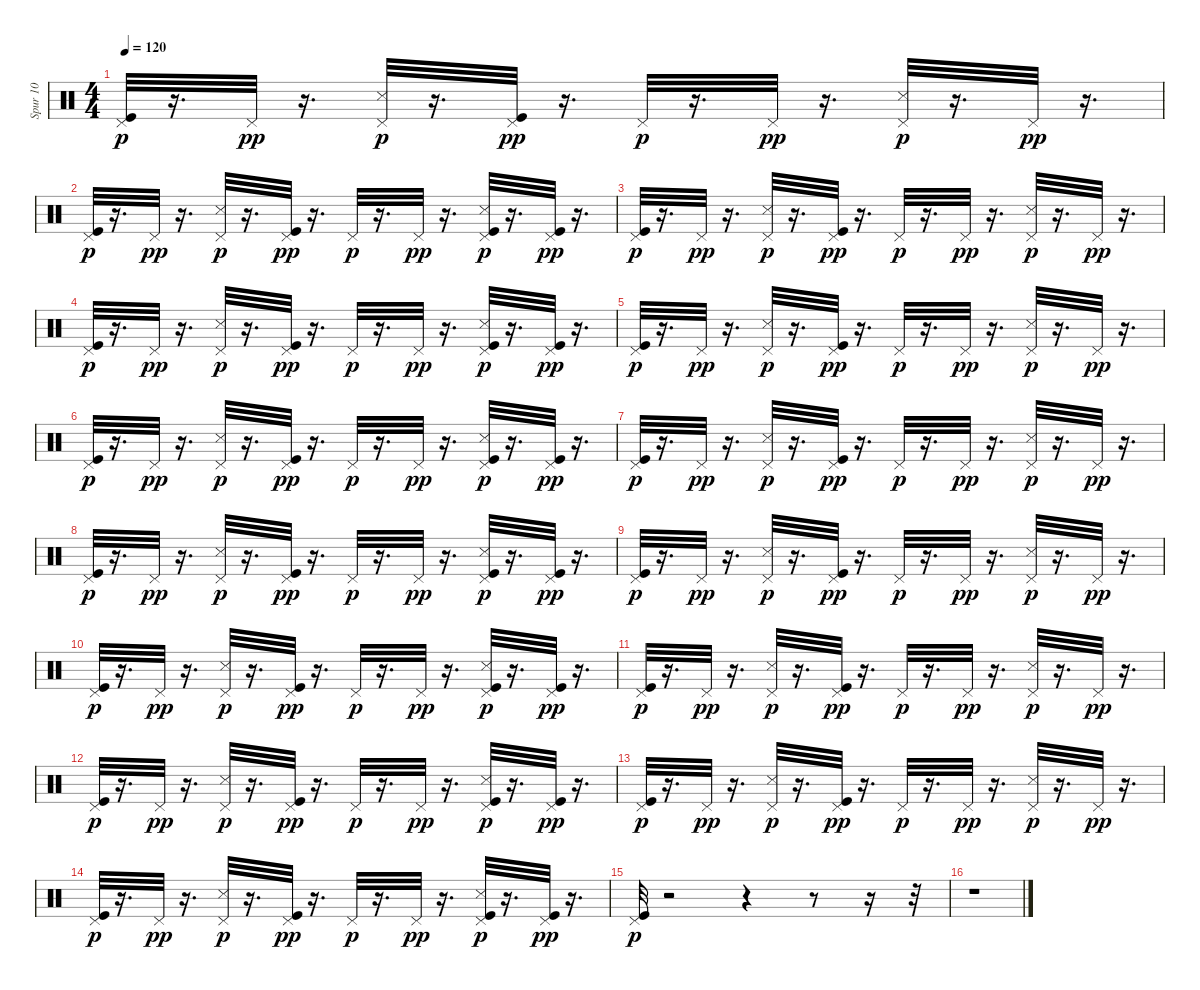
\track ("Spur 10" "Spur 10") {instrument percussion}
\staff {score}
\articulation defaults
\ts (4 4)
\tempo 120
\clef neutral
\ks c
("Kick (hit)" "Pedal Hi-Hat (hit)").32{dy p} r.16{d} "Pedal Hi-Hat (hit)".32{dy pp} r.16{d} ("Snare (side stick) 3" "Pedal Hi-Hat (hit)").32{dy p} r.16{d} ("Kick (hit)" "Pedal Hi-Hat (hit)").32{dy pp} r.16{d} "Pedal Hi-Hat (hit)".32{dy p} r.16{d} "Pedal Hi-Hat (hit)".32{dy pp} r.16{d} ("Snare (side stick) 3" "Pedal Hi-Hat (hit)").32{dy p} r.16{d} "Pedal Hi-Hat (hit)".32{dy pp} r.16{d} |
("Kick (hit)" "Pedal Hi-Hat (hit)").32{dy p} r.16{d} "Pedal Hi-Hat (hit)".32{dy pp} r.16{d} ("Snare (side stick) 3" "Pedal Hi-Hat (hit)").32{dy p} r.16{d} ("Kick (hit)" "Pedal Hi-Hat (hit)").32{dy pp} r.16{d} "Pedal Hi-Hat (hit)".32{dy p} r.16{d} "Pedal Hi-Hat (hit)".32{dy pp} r.16{d} ("Kick (hit)" "Snare (side stick) 3" "Pedal Hi-Hat (hit)").32{dy p} r.16{d} ("Kick (hit)" "Pedal Hi-Hat (hit)").32{dy pp} r.16{d} |
("Kick (hit)" "Pedal Hi-Hat (hit)").32{dy p} r.16{d} "Pedal Hi-Hat (hit)".32{dy pp} r.16{d} ("Snare (side stick) 3" "Pedal Hi-Hat (hit)").32{dy p} r.16{d} ("Kick (hit)" "Pedal Hi-Hat (hit)").32{dy pp} r.16{d} "Pedal Hi-Hat (hit)".32{dy p} r.16{d} "Pedal Hi-Hat (hit)".32{dy pp} r.16{d} ("Snare (side stick) 3" "Pedal Hi-Hat (hit)").32{dy p} r.16{d} "Pedal Hi-Hat (hit)".32{dy pp} r.16{d} |
("Kick (hit)" "Pedal Hi-Hat (hit)").32{dy p} r.16{d} "Pedal Hi-Hat (hit)".32{dy pp} r.16{d} ("Snare (side stick) 3" "Pedal Hi-Hat (hit)").32{dy p} r.16{d} ("Kick (hit)" "Pedal Hi-Hat (hit)").32{dy pp} r.16{d} "Pedal Hi-Hat (hit)".32{dy p} r.16{d} "Pedal Hi-Hat (hit)".32{dy pp} r.16{d} ("Kick (hit)" "Snare (side stick) 3" "Pedal Hi-Hat (hit)").32{dy p} r.16{d} ("Kick (hit)" "Pedal Hi-Hat (hit)").32{dy pp} r.16{d} |
("Kick (hit)" "Pedal Hi-Hat (hit)").32{dy p} r.16{d} "Pedal Hi-Hat (hit)".32{dy pp} r.16{d} ("Snare (side stick) 3" "Pedal Hi-Hat (hit)").32{dy p} r.16{d} ("Kick (hit)" "Pedal Hi-Hat (hit)").32{dy pp} r.16{d} "Pedal Hi-Hat (hit)".32{dy p} r.16{d} "Pedal Hi-Hat (hit)".32{dy pp} r.16{d} ("Snare (side stick) 3" "Pedal Hi-Hat (hit)").32{dy p} r.16{d} "Pedal Hi-Hat (hit)".32{dy pp} r.16{d} |
("Kick (hit)" "Pedal Hi-Hat (hit)").32{dy p} r.16{d} "Pedal Hi-Hat (hit)".32{dy pp} r.16{d} ("Snare (side stick) 3" "Pedal Hi-Hat (hit)").32{dy p} r.16{d} ("Kick (hit)" "Pedal Hi-Hat (hit)").32{dy pp} r.16{d} "Pedal Hi-Hat (hit)".32{dy p} r.16{d} "Pedal Hi-Hat (hit)".32{dy pp} r.16{d} ("Kick (hit)" "Snare (side stick) 3" "Pedal Hi-Hat (hit)").32{dy p} r.16{d} ("Kick (hit)" "Pedal Hi-Hat (hit)").32{dy pp} r.16{d} |
("Kick (hit)" "Pedal Hi-Hat (hit)").32{dy p} r.16{d} "Pedal Hi-Hat (hit)".32{dy pp} r.16{d} ("Snare (side stick) 3" "Pedal Hi-Hat (hit)").32{dy p} r.16{d} ("Kick (hit)" "Pedal Hi-Hat (hit)").32{dy pp} r.16{d} "Pedal Hi-Hat (hit)".32{dy p} r.16{d} "Pedal Hi-Hat (hit)".32{dy pp} r.16{d} ("Snare (side stick) 3" "Pedal Hi-Hat (hit)").32{dy p} r.16{d} "Pedal Hi-Hat (hit)".32{dy pp} r.16{d} |
("Kick (hit)" "Pedal Hi-Hat (hit)").32{dy p} r.16{d} "Pedal Hi-Hat (hit)".32{dy pp} r.16{d} ("Snare (side stick) 3" "Pedal Hi-Hat (hit)").32{dy p} r.16{d} ("Kick (hit)" "Pedal Hi-Hat (hit)").32{dy pp} r.16{d} "Pedal Hi-Hat (hit)".32{dy p} r.16{d} "Pedal Hi-Hat (hit)".32{dy pp} r.16{d} ("Kick (hit)" "Snare (side stick) 3" "Pedal Hi-Hat (hit)").32{dy p} r.16{d} ("Kick (hit)" "Pedal Hi-Hat (hit)").32{dy pp} r.16{d} |
("Kick (hit)" "Pedal Hi-Hat (hit)").32{dy p} r.16{d} "Pedal Hi-Hat (hit)".32{dy pp} r.16{d} ("Snare (side stick) 3" "Pedal Hi-Hat (hit)").32{dy p} r.16{d} ("Kick (hit)" "Pedal Hi-Hat (hit)").32{dy pp} r.16{d} "Pedal Hi-Hat (hit)".32{dy p} r.16{d} "Pedal Hi-Hat (hit)".32{dy pp} r.16{d} ("Snare (side stick) 3" "Pedal Hi-Hat (hit)").32{dy p} r.16{d} "Pedal Hi-Hat (hit)".32{dy pp} r.16{d} |
("Kick (hit)" "Pedal Hi-Hat (hit)").32{dy p} r.16{d} "Pedal Hi-Hat (hit)".32{dy pp} r.16{d} ("Snare (side stick) 3" "Pedal Hi-Hat (hit)").32{dy p} r.16{d} ("Kick (hit)" "Pedal Hi-Hat (hit)").32{dy pp} r.16{d} "Pedal Hi-Hat (hit)".32{dy p} r.16{d} "Pedal Hi-Hat (hit)".32{dy pp} r.16{d} ("Kick (hit)" "Snare (side stick) 3" "Pedal Hi-Hat (hit)").32{dy p} r.16{d} ("Kick (hit)" "Pedal Hi-Hat (hit)").32{dy pp} r.16{d} |
("Kick (hit)" "Pedal Hi-Hat (hit)").32{dy p} r.16{d} "Pedal Hi-Hat (hit)".32{dy pp} r.16{d} ("Snare (side stick) 3" "Pedal Hi-Hat (hit)").32{dy p} r.16{d} ("Kick (hit)" "Pedal Hi-Hat (hit)").32{dy pp} r.16{d} "Pedal Hi-Hat (hit)".32{dy p} r.16{d} "Pedal Hi-Hat (hit)".32{dy pp} r.16{d} ("Snare (side stick) 3" "Pedal Hi-Hat (hit)").32{dy p} r.16{d} "Pedal Hi-Hat (hit)".32{dy pp} r.16{d} |
("Kick (hit)" "Pedal Hi-Hat (hit)").32{dy p} r.16{d} "Pedal Hi-Hat (hit)".32{dy pp} r.16{d} ("Snare (side stick) 3" "Pedal Hi-Hat (hit)").32{dy p} r.16{d} ("Kick (hit)" "Pedal Hi-Hat (hit)").32{dy pp} r.16{d} "Pedal Hi-Hat (hit)".32{dy p} r.16{d} "Pedal Hi-Hat (hit)".32{dy pp} r.16{d} ("Kick (hit)" "Snare (side stick) 3" "Pedal Hi-Hat (hit)").32{dy p} r.16{d} ("Kick (hit)" "Pedal Hi-Hat (hit)").32{dy pp} r.16{d} |
("Kick (hit)" "Pedal Hi-Hat (hit)").32{dy p} r.16{d} "Pedal Hi-Hat (hit)".32{dy pp} r.16{d} ("Snare (side stick) 3" "Pedal Hi-Hat (hit)").32{dy p} r.16{d} ("Kick (hit)" "Pedal Hi-Hat (hit)").32{dy pp} r.16{d} "Pedal Hi-Hat (hit)".32{dy p} r.16{d} "Pedal Hi-Hat (hit)".32{dy pp} r.16{d} ("Snare (side stick) 3" "Pedal Hi-Hat (hit)").32{dy p} r.16{d} "Pedal Hi-Hat (hit)".32{dy pp} r.16{d} |
("Kick (hit)" "Pedal Hi-Hat (hit)").32{dy p} r.16{d} "Pedal Hi-Hat (hit)".32{dy pp} r.16{d} ("Snare (side stick) 3" "Pedal Hi-Hat (hit)").32{dy p} r.16{d} ("Kick (hit)" "Pedal Hi-Hat (hit)").32{dy pp} r.16{d} "Pedal Hi-Hat (hit)".32{dy p} r.16{d} "Pedal Hi-Hat (hit)".32{dy pp} r.16{d} ("Kick (hit)" "Snare (side stick) 3" "Pedal Hi-Hat (hit)").32{dy p} r.16{d} ("Kick (hit)" "Pedal Hi-Hat (hit)").32{dy pp} r.16{d} |
("Kick (hit)" "Pedal Hi-Hat (hit)").32{dy p} r.2 r.4 r.8 r.16 r.32 |
r.1
